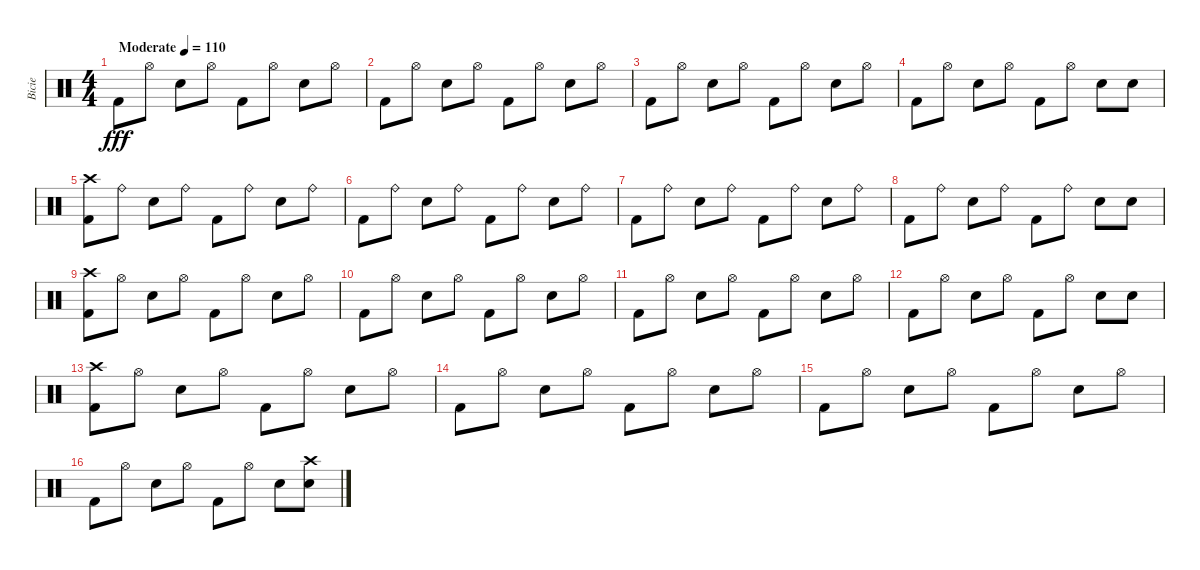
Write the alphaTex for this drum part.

\track ("Bicie" "Bicie") {instrument percussion}
\staff {score}
\articulation defaults
\ts (4 4)
\tempo (110 "Moderate")
\clef neutral
\ks c "Kick (hit) 2".8{dy fff} "Hi-Hat (open)".8 "Electric Snare (hit)".8 "Hi-Hat (open)".8 "Kick (hit) 2".8 "Hi-Hat (open)".8 "Electric Snare (hit)".8 "Hi-Hat (open)".8
|
"Kick (hit) 2".8 "Hi-Hat (open)".8 "Electric Snare (hit)".8 "Hi-Hat (open)".8 "Kick (hit) 2".8 "Hi-Hat (open)".8 "Electric Snare (hit)".8 "Hi-Hat (open)".8 |
"Kick (hit) 2".8 "Hi-Hat (open)".8 "Electric Snare (hit)".8 "Hi-Hat (open)".8 "Kick (hit) 2".8 "Hi-Hat (open)".8 "Electric Snare (hit)".8 "Hi-Hat (open)".8 |
"Kick (hit) 2".8 "Hi-Hat (open)".8 "Electric Snare (hit)".8 "Hi-Hat (open)".8 "Kick (hit) 2".8 "Hi-Hat (open)".8 "Electric Snare (hit)".8 "Electric Snare (hit)".8 |
("Crash high (hit)" "Kick (hit) 2").8 "Ride (bell)".8 "Electric Snare (hit)".8 "Ride (bell)".8 "Kick (hit) 2".8 "Ride (bell)".8 "Electric Snare (hit)".8 "Ride (bell)".8 |
"Kick (hit) 2".8 "Ride (bell)".8 "Electric Snare (hit)".8 "Ride (bell)".8 "Kick (hit) 2".8 "Ride (bell)".8 "Electric Snare (hit)".8 "Ride (bell)".8 |
"Kick (hit) 2".8 "Ride (bell)".8 "Electric Snare (hit)".8 "Ride (bell)".8 "Kick (hit) 2".8 "Ride (bell)".8 "Electric Snare (hit)".8 "Ride (bell)".8 |
"Kick (hit) 2".8 "Ride (bell)".8 "Electric Snare (hit)".8 "Ride (bell)".8 "Kick (hit) 2".8 "Ride (bell)".8 "Electric Snare (hit)".8 "Electric Snare (hit)".8 |
("Crash high (hit)" "Kick (hit) 2").8 "Hi-Hat (open)".8 "Electric Snare (hit)".8 "Hi-Hat (open)".8 "Kick (hit) 2".8 "Hi-Hat (open)".8 "Electric Snare (hit)".8 "Hi-Hat (open)".8 |
"Kick (hit) 2".8 "Hi-Hat (open)".8 "Electric Snare (hit)".8 "Hi-Hat (open)".8 "Kick (hit) 2".8 "Hi-Hat (open)".8 "Electric Snare (hit)".8 "Hi-Hat (open)".8 |
"Kick (hit) 2".8 "Hi-Hat (open)".8 "Electric Snare (hit)".8 "Hi-Hat (open)".8 "Kick (hit) 2".8 "Hi-Hat (open)".8 "Electric Snare (hit)".8 "Hi-Hat (open)".8 |
"Kick (hit) 2".8 "Hi-Hat (open)".8 "Electric Snare (hit)".8 "Hi-Hat (open)".8 "Kick (hit) 2".8 "Hi-Hat (open)".8 "Electric Snare (hit)".8 "Electric Snare (hit)".8 |
("Crash high (hit)" "Kick (hit) 2").8 "Hi-Hat (open)".8 "Electric Snare (hit)".8 "Hi-Hat (open)".8 "Kick (hit) 2".8 "Hi-Hat (open)".8 "Electric Snare (hit)".8 "Hi-Hat (open)".8 |
"Kick (hit) 2".8 "Hi-Hat (open)".8 "Electric Snare (hit)".8 "Hi-Hat (open)".8 "Kick (hit) 2".8 "Hi-Hat (open)".8 "Electric Snare (hit)".8 "Hi-Hat (open)".8 |
"Kick (hit) 2".8 "Hi-Hat (open)".8 "Electric Snare (hit)".8 "Hi-Hat (open)".8 "Kick (hit) 2".8 "Hi-Hat (open)".8 "Electric Snare (hit)".8 "Hi-Hat (open)".8 |
"Kick (hit) 2".8 "Hi-Hat (open)".8 "Electric Snare (hit)".8 "Hi-Hat (open)".8 "Kick (hit) 2".8 "Hi-Hat (open)".8 "Electric Snare (hit)".8 ("Crash high (hit)" "Electric Snare (hit)").8
